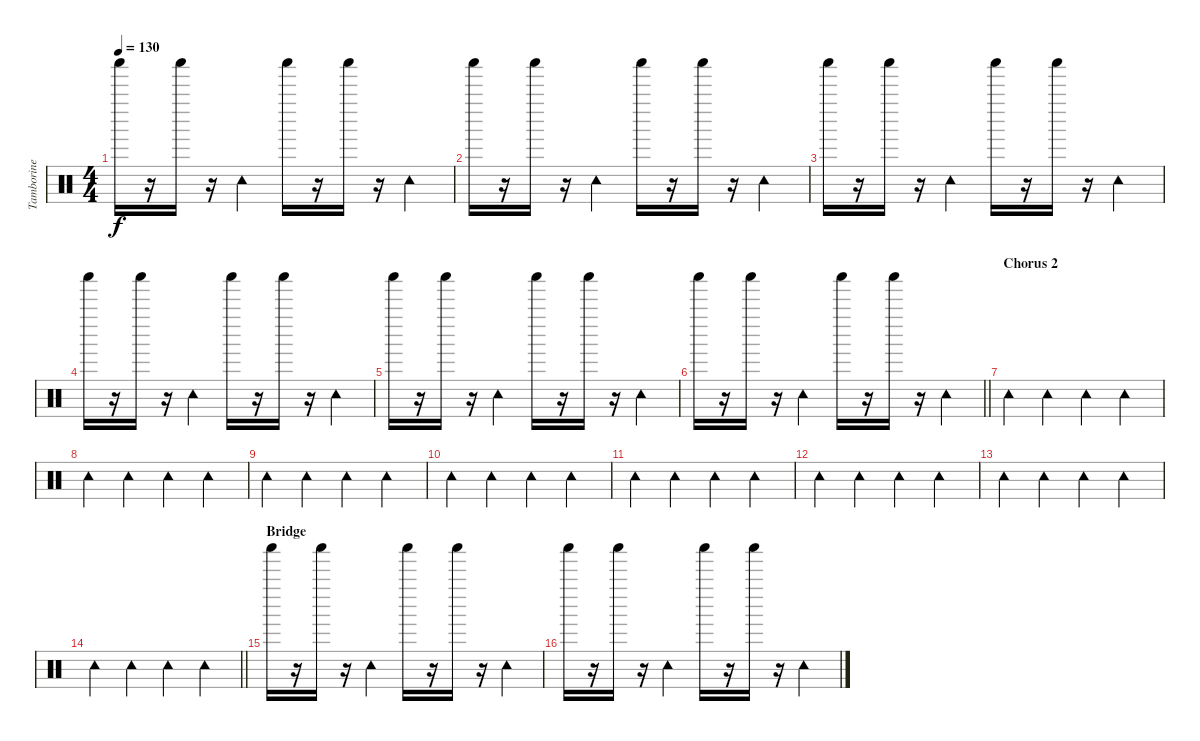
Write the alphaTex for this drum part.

\track ("Tamborine" "Tamborine") {instrument percussion}
\staff {score}
\articulation defaults
\ts (4 4)
\tempo 130
\clef neutral
\ks c "Shaker (hit)".16{dy f}
r.16 "Shaker (hit)".16 r.16 "Tambourine (hit)".4 "Shaker (hit)".16 r.16 "Shaker (hit)".16 r.16 "Tambourine (hit)".4 |
"Shaker (hit)".16 r.16 "Shaker (hit)".16 r.16 "Tambourine (hit)".4 "Shaker (hit)".16 r.16 "Shaker (hit)".16 r.16 "Tambourine (hit)".4 |
"Shaker (hit)".16 r.16 "Shaker (hit)".16 r.16 "Tambourine (hit)".4 "Shaker (hit)".16 r.16 "Shaker (hit)".16 r.16 "Tambourine (hit)".4 |
"Shaker (hit)".16 r.16 "Shaker (hit)".16 r.16 "Tambourine (hit)".4 "Shaker (hit)".16 r.16 "Shaker (hit)".16 r.16 "Tambourine (hit)".4 |
"Shaker (hit)".16 r.16 "Shaker (hit)".16 r.16 "Tambourine (hit)".4 "Shaker (hit)".16 r.16 "Shaker (hit)".16 r.16 "Tambourine (hit)".4 |
\barLineRight lightlight "Shaker (hit)".16
r.16 "Shaker (hit)".16 r.16 "Tambourine (hit)".4 "Shaker (hit)".16 r.16 "Shaker (hit)".16 r.16 "Tambourine (hit)".4 |
\section ("" "Chorus 2")
"Tambourine (hit)".4 "Tambourine (hit)".4 "Tambourine (hit)".4 "Tambourine (hit)".4 |
"Tambourine (hit)".4 "Tambourine (hit)".4 "Tambourine (hit)".4 "Tambourine (hit)".4 |
"Tambourine (hit)".4 "Tambourine (hit)".4 "Tambourine (hit)".4 "Tambourine (hit)".4 |
"Tambourine (hit)".4 "Tambourine (hit)".4 "Tambourine (hit)".4 "Tambourine (hit)".4 |
"Tambourine (hit)".4 "Tambourine (hit)".4 "Tambourine (hit)".4 "Tambourine (hit)".4 |
"Tambourine (hit)".4 "Tambourine (hit)".4 "Tambourine (hit)".4 "Tambourine (hit)".4 |
"Tambourine (hit)".4 "Tambourine (hit)".4 "Tambourine (hit)".4 "Tambourine (hit)".4 |
\barLineRight lightlight "Tambourine (hit)".4 "Tambourine (hit)".4 "Tambourine (hit)".4 "Tambourine (hit)".4
|
\section ("" "Bridge")
"Shaker (hit)".16 r.16 "Shaker (hit)".16 r.16 "Tambourine (hit)".4 "Shaker (hit)".16 r.16 "Shaker (hit)".16 r.16 "Tambourine (hit)".4 |
"Shaker (hit)".16 r.16 "Shaker (hit)".16 r.16 "Tambourine (hit)".4 "Shaker (hit)".16 r.16 "Shaker (hit)".16 r.16 "Tambourine (hit)".4
